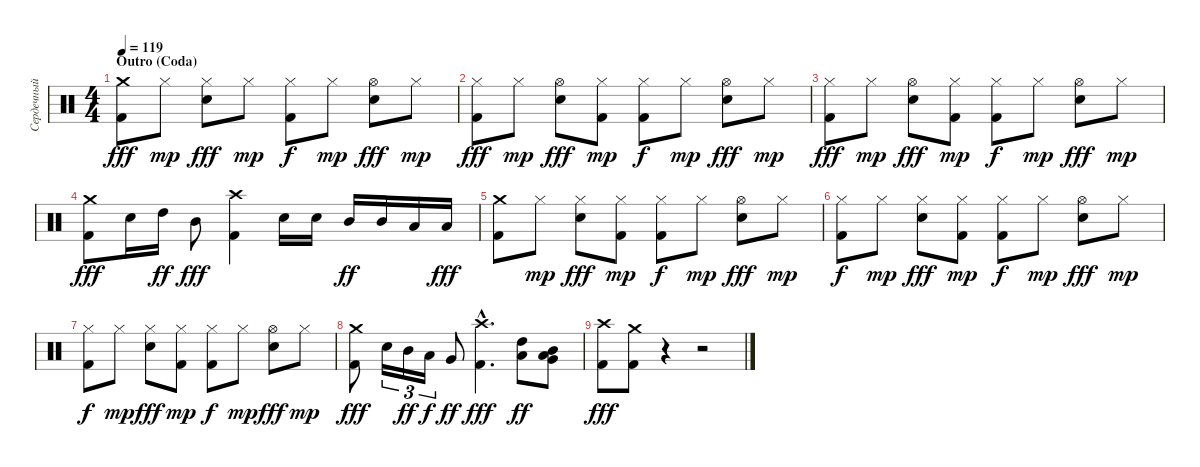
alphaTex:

\track ("Сердечный (Ударные)" "Сердечный ") {instrument percussion}
\staff {score}
\articulation defaults
\ts (4 4)
\section ("" "Outro (Coda)")
\tempo 119
\clef neutral
\ks c
("Kick (hit) 2" "Crash medium (hit)").8{dy fff} "Hi-Hat (closed)".8{dy mp} ("Hi-Hat (closed)" "Electric Snare (hit)").8{dy fff} "Hi-Hat (closed)".8{dy mp} ("Hi-Hat (closed)" "Kick (hit) 2").8{dy f} "Hi-Hat (closed)".8{dy mp} ("Hi-Hat (open)" "Electric Snare (hit)").8{dy fff} "Hi-Hat (closed)".8{dy mp} |
("Kick (hit) 2" "Hi-Hat (closed)").8{dy fff} "Hi-Hat (closed)".8{dy mp} ("Hi-Hat (open)" "Electric Snare (hit)").8{dy fff} ("Hi-Hat (closed)" "Kick (hit) 2").8{dy mp} ("Hi-Hat (closed)" "Kick (hit) 2").8{dy f} "Hi-Hat (closed)".8{dy mp} ("Hi-Hat (open)" "Electric Snare (hit)").8{dy fff} "Hi-Hat (closed)".8{dy mp} |
("Kick (hit) 2" "Hi-Hat (closed)").8{dy fff} "Hi-Hat (closed)".8{dy mp} ("Hi-Hat (open)" "Electric Snare (hit)").8{dy fff} ("Hi-Hat (closed)" "Kick (hit) 2").8{dy mp} ("Hi-Hat (closed)" "Kick (hit) 2").8{dy f} "Hi-Hat (closed)".8{dy mp} ("Hi-Hat (open)" "Electric Snare (hit)").8{dy fff} "Hi-Hat (closed)".8{dy mp} |
("Kick (hit) 2" "Crash medium (hit)").8{dy fff} "Electric Snare (hit)".16 "High Tom (hit)".16{dy ff} "Mid Tom (hit)".8{dy fff} ("Kick (hit) 2" "Crash high (hit)").4 "Electric Snare (hit)".16 "Electric Snare (hit)".16 "Mid Tom (hit)".16{dy ff} "Mid Tom (hit)".16 "Low Tom (hit)".16 "Low Tom (hit)".16{dy fff} |
("Kick (hit) 2" "Crash medium (hit)").8 "Hi-Hat (closed)".8{dy mp} ("Hi-Hat (closed)" "Electric Snare (hit)").8{dy fff} ("Hi-Hat (closed)" "Kick (hit) 2").8{dy mp} ("Hi-Hat (closed)" "Kick (hit) 2").8{dy f} "Hi-Hat (closed)".8{dy mp} ("Hi-Hat (open)" "Electric Snare (hit)").8{dy fff} "Hi-Hat (closed)".8{dy mp} |
("Kick (hit) 2" "Hi-Hat (closed)").8{dy f} "Hi-Hat (closed)".8{dy mp} ("Hi-Hat (closed)" "Electric Snare (hit)").8{dy fff} ("Hi-Hat (closed)" "Kick (hit) 2").8{dy mp} ("Hi-Hat (closed)" "Kick (hit) 2").8{dy f} "Hi-Hat (closed)".8{dy mp} ("Hi-Hat (open)" "Electric Snare (hit)").8{dy fff} "Hi-Hat (closed)".8{dy mp} |
("Kick (hit) 2" "Hi-Hat (closed)").8{dy f} "Hi-Hat (closed)".8{dy mp} ("Hi-Hat (closed)" "Electric Snare (hit)").8{dy fff} ("Hi-Hat (closed)" "Kick (hit) 2").8{dy mp} ("Hi-Hat (closed)" "Kick (hit) 2").8{dy f} "Hi-Hat (closed)".8{dy mp} ("Hi-Hat (open)" "Electric Snare (hit)").8{dy fff} "Hi-Hat (closed)".8{dy mp} |
("Kick (hit) 2" "Crash medium (hit)").8{dy fff} "Electric Snare (hit)".16{tu (3 2)} "Mid Tom (hit)".16{tu (3 2) dy ff} "Low Tom (hit)".16{tu (3 2) dy f} "Very Low Tom (hit)".8{dy ff} ("Crash high (hit)"{hac} "Kick (hit) 2"{hac}).4{d dy fff} ("High Tom (hit)" "Low Tom (hit)").8{dy ff} ("Low Tom (hit)" "Mid Tom (hit)" "Very Low Tom (hit)").8 |
("Kick (hit) 2" "Crash high (hit)").8{dy fff} ("Kick (hit) 2" "Crash medium (hit)").8 r.4 r.2
